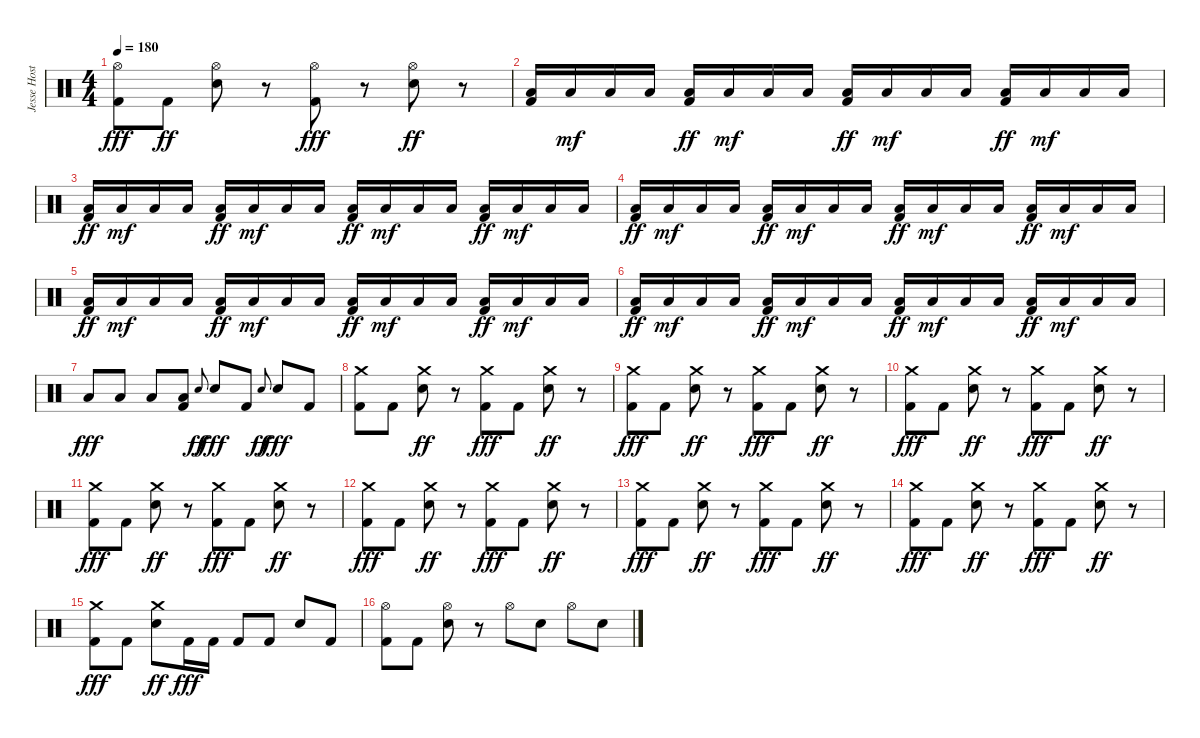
\track ("Jesse Hostetler" "Jesse Host") {instrument percussion}
\staff {score}
\articulation defaults
\ts (4 4)
\tempo 180
\clef neutral
\ks c
("Hi-Hat (open)" "Kick (hit) 2").8{dy fff} "Kick (hit) 2".8{dy ff} ("Hi-Hat (open)" "Electric Snare (hit)").8 r.8 ("Hi-Hat (open)" "Kick (hit) 2").8{dy fff} r.8 ("Hi-Hat (open)" "Electric Snare (hit)").8{dy ff} r.8 |
("Low Floor Tom (hit)" "Kick (hit) 2").16 "Low Floor Tom (hit)".16{dy mf} "Low Floor Tom (hit)".16 "Low Floor Tom (hit)".16 ("Low Floor Tom (hit)" "Kick (hit) 2").16{dy ff} "Low Floor Tom (hit)".16{dy mf} "Low Floor Tom (hit)".16 "Low Floor Tom (hit)".16 ("Low Floor Tom (hit)" "Kick (hit) 2").16{dy ff} "Low Floor Tom (hit)".16{dy mf} "Low Floor Tom (hit)".16 "Low Floor Tom (hit)".16 ("Low Floor Tom (hit)" "Kick (hit) 2").16{dy ff} "Low Floor Tom (hit)".16{dy mf} "Low Floor Tom (hit)".16 "Low Floor Tom (hit)".16 |
("Low Floor Tom (hit)" "Kick (hit) 2").16{dy ff} "Low Floor Tom (hit)".16{dy mf} "Low Floor Tom (hit)".16 "Low Floor Tom (hit)".16 ("Low Floor Tom (hit)" "Kick (hit) 2").16{dy ff} "Low Floor Tom (hit)".16{dy mf} "Low Floor Tom (hit)".16 "Low Floor Tom (hit)".16 ("Low Floor Tom (hit)" "Kick (hit) 2").16{dy ff} "Low Floor Tom (hit)".16{dy mf} "Low Floor Tom (hit)".16 "Low Floor Tom (hit)".16 ("Low Floor Tom (hit)" "Kick (hit) 2").16{dy ff} "Low Floor Tom (hit)".16{dy mf} "Low Floor Tom (hit)".16 "Low Floor Tom (hit)".16 |
("Low Floor Tom (hit)" "Kick (hit) 2").16{dy ff} "Low Floor Tom (hit)".16{dy mf} "Low Floor Tom (hit)".16 "Low Floor Tom (hit)".16 ("Low Floor Tom (hit)" "Kick (hit) 2").16{dy ff} "Low Floor Tom (hit)".16{dy mf} "Low Floor Tom (hit)".16 "Low Floor Tom (hit)".16 ("Low Floor Tom (hit)" "Kick (hit) 2").16{dy ff} "Low Floor Tom (hit)".16{dy mf} "Low Floor Tom (hit)".16 "Low Floor Tom (hit)".16 ("Low Floor Tom (hit)" "Kick (hit) 2").16{dy ff} "Low Floor Tom (hit)".16{dy mf} "Low Floor Tom (hit)".16 "Low Floor Tom (hit)".16 |
("Low Floor Tom (hit)" "Kick (hit) 2").16{dy ff} "Low Floor Tom (hit)".16{dy mf} "Low Floor Tom (hit)".16 "Low Floor Tom (hit)".16 ("Low Floor Tom (hit)" "Kick (hit) 2").16{dy ff} "Low Floor Tom (hit)".16{dy mf} "Low Floor Tom (hit)".16 "Low Floor Tom (hit)".16 ("Low Floor Tom (hit)" "Kick (hit) 2").16{dy ff} "Low Floor Tom (hit)".16{dy mf} "Low Floor Tom (hit)".16 "Low Floor Tom (hit)".16 ("Low Floor Tom (hit)" "Kick (hit) 2").16{dy ff} "Low Floor Tom (hit)".16{dy mf} "Low Floor Tom (hit)".16 "Low Floor Tom (hit)".16 |
("Low Floor Tom (hit)" "Kick (hit) 2").16{dy ff} "Low Floor Tom (hit)".16{dy mf} "Low Floor Tom (hit)".16 "Low Floor Tom (hit)".16 ("Low Floor Tom (hit)" "Kick (hit) 2").16{dy ff} "Low Floor Tom (hit)".16{dy mf} "Low Floor Tom (hit)".16 "Low Floor Tom (hit)".16 ("Low Floor Tom (hit)" "Kick (hit) 2").16{dy ff} "Low Floor Tom (hit)".16{dy mf} "Low Floor Tom (hit)".16 "Low Floor Tom (hit)".16 ("Low Floor Tom (hit)" "Kick (hit) 2").16{dy ff} "Low Floor Tom (hit)".16{dy mf} "Low Floor Tom (hit)".16 "Low Floor Tom (hit)".16 |
"Low Floor Tom (hit)".8{dy fff} "Low Floor Tom (hit)".8 "Low Floor Tom (hit)".8 ("Low Floor Tom (hit)" "Kick (hit) 2").8 "Electric Snare (hit)".8{gr onbeat dy ff} "Electric Snare (hit)".8{dy fff} "Kick (hit) 2".8 "Electric Snare (hit)".8{gr onbeat dy ff} "Electric Snare (hit)".8{dy fff} "Kick (hit) 2".8 |
("Crash medium (hit)" "Kick (hit) 2").8 "Kick (hit) 2".8 ("Crash medium (hit)" "Electric Snare (hit)").8{dy ff} r.8 ("Crash medium (hit)" "Kick (hit) 2").8{dy fff} "Kick (hit) 2".8 ("Crash medium (hit)" "Electric Snare (hit)").8{dy ff} r.8 |
("Crash medium (hit)" "Kick (hit) 2").8{dy fff} "Kick (hit) 2".8 ("Crash medium (hit)" "Electric Snare (hit)").8{dy ff} r.8 ("Crash medium (hit)" "Kick (hit) 2").8{dy fff} "Kick (hit) 2".8 ("Crash medium (hit)" "Electric Snare (hit)").8{dy ff} r.8 |
("Crash medium (hit)" "Kick (hit) 2").8{dy fff} "Kick (hit) 2".8 ("Crash medium (hit)" "Electric Snare (hit)").8{dy ff} r.8 ("Crash medium (hit)" "Kick (hit) 2").8{dy fff} "Kick (hit) 2".8 ("Crash medium (hit)" "Electric Snare (hit)").8{dy ff} r.8 |
("Crash medium (hit)" "Kick (hit) 2").8{dy fff} "Kick (hit) 2".8 ("Crash medium (hit)" "Electric Snare (hit)").8{dy ff} r.8 ("Crash medium (hit)" "Kick (hit) 2").8{dy fff} "Kick (hit) 2".8 ("Crash medium (hit)" "Electric Snare (hit)").8{dy ff} r.8 |
("Crash medium (hit)" "Kick (hit) 2").8{dy fff} "Kick (hit) 2".8 ("Crash medium (hit)" "Electric Snare (hit)").8{dy ff} r.8 ("Crash medium (hit)" "Kick (hit) 2").8{dy fff} "Kick (hit) 2".8 ("Crash medium (hit)" "Electric Snare (hit)").8{dy ff} r.8 |
("Crash medium (hit)" "Kick (hit) 2").8{dy fff} "Kick (hit) 2".8 ("Crash medium (hit)" "Electric Snare (hit)").8{dy ff} r.8 ("Crash medium (hit)" "Kick (hit) 2").8{dy fff} "Kick (hit) 2".8 ("Crash medium (hit)" "Electric Snare (hit)").8{dy ff} r.8 |
("Crash medium (hit)" "Kick (hit) 2").8{dy fff} "Kick (hit) 2".8 ("Crash medium (hit)" "Electric Snare (hit)").8{dy ff} r.8 ("Crash medium (hit)" "Kick (hit) 2").8{dy fff} "Kick (hit) 2".8 ("Crash medium (hit)" "Electric Snare (hit)").8{dy ff} r.8 |
("Crash medium (hit)" "Kick (hit) 2").8{dy fff} "Kick (hit) 2".8 ("Crash medium (hit)" "Electric Snare (hit)").8{dy ff} "Kick (hit) 2".16{dy fff} "Kick (hit) 2".16 "Kick (hit) 2".8 "Kick (hit) 2".8 "Electric Snare (hit)".8 "Kick (hit) 2".8 |
("Hi-Hat (open)" "Kick (hit) 2").8 "Kick (hit) 2".8 ("Hi-Hat (open)" "Electric Snare (hit)").8 r.8 "Hi-Hat (open)".8 "Electric Snare (hit)".8 "Hi-Hat (open)".8 "Electric Snare (hit)".8
